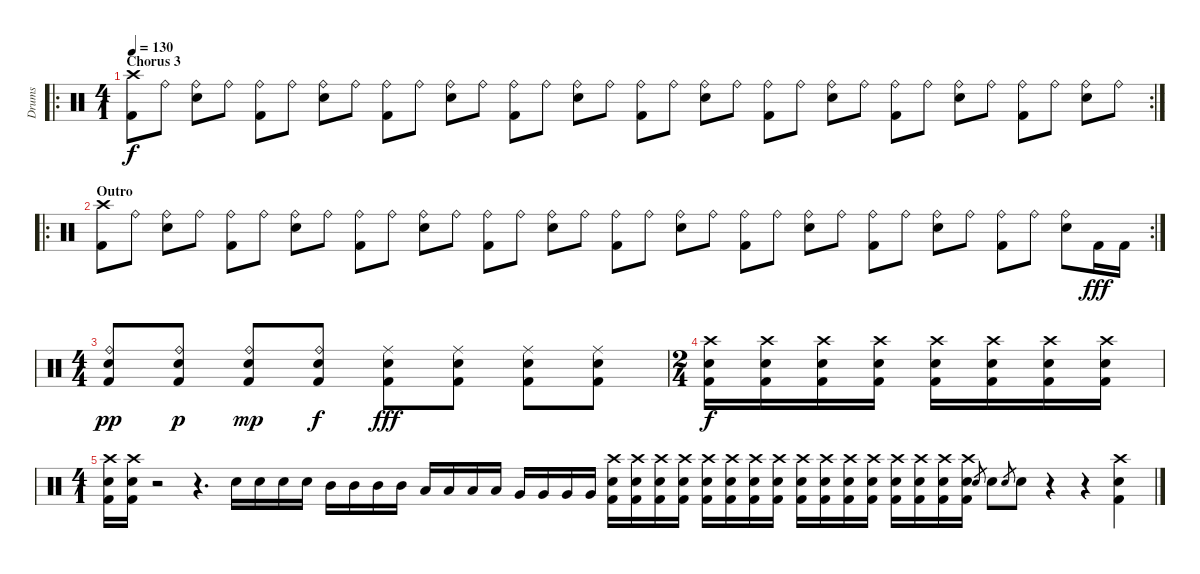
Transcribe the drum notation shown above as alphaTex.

\track ("Drums" "Drums") {instrument percussion}
\staff {score}
\articulation defaults
\ro
\rc 2
\ts (4 1)
\section ("" "Chorus 3")
\tempo 130
\clef neutral
\ks c
("Crash high (hit)" "Kick (hit) 2").8{dy f} "Ride (bell)".8 ("Ride (bell)" "Electric Snare (hit)").8 "Ride (bell)".8 ("Ride (bell)" "Kick (hit) 2").8 "Ride (bell)".8 ("Ride (bell)" "Electric Snare (hit)").8 "Ride (bell)".8 ("Ride (bell)" "Kick (hit) 2").8 "Ride (bell)".8 ("Ride (bell)" "Electric Snare (hit)").8 "Ride (bell)".8 ("Ride (bell)" "Kick (hit) 2").8 "Ride (bell)".8 ("Ride (bell)" "Electric Snare (hit)").8 "Ride (bell)".8 ("Ride (bell)" "Kick (hit) 2").8 "Ride (bell)".8 ("Ride (bell)" "Electric Snare (hit)").8 "Ride (bell)".8 ("Ride (bell)" "Kick (hit) 2").8 "Ride (bell)".8 ("Ride (bell)" "Electric Snare (hit)").8 "Ride (bell)".8 ("Ride (bell)" "Kick (hit) 2").8 "Ride (bell)".8 ("Ride (bell)" "Electric Snare (hit)").8 "Ride (bell)".8 ("Ride (bell)" "Kick (hit) 2").8 "Ride (bell)".8 ("Ride (bell)" "Electric Snare (hit)").8 "Ride (bell)".8 |
\ro
\rc 2
\section ("" "Outro")
("Crash high (hit)" "Kick (hit) 2").8 "Ride (bell)".8 ("Ride (bell)" "Electric Snare (hit)").8 "Ride (bell)".8 ("Ride (bell)" "Kick (hit) 2").8 "Ride (bell)".8 ("Ride (bell)" "Electric Snare (hit)").8 "Ride (bell)".8 ("Ride (bell)" "Kick (hit) 2").8 "Ride (bell)".8 ("Ride (bell)" "Electric Snare (hit)").8 "Ride (bell)".8 ("Ride (bell)" "Kick (hit) 2").8 "Ride (bell)".8 ("Ride (bell)" "Electric Snare (hit)").8 "Ride (bell)".8 ("Ride (bell)" "Kick (hit) 2").8 "Ride (bell)".8 ("Ride (bell)" "Electric Snare (hit)").8 "Ride (bell)".8 ("Ride (bell)" "Kick (hit) 2").8 "Ride (bell)".8 ("Ride (bell)" "Electric Snare (hit)").8 "Ride (bell)".8 ("Ride (bell)" "Kick (hit) 2").8 "Ride (bell)".8 ("Ride (bell)" "Electric Snare (hit)").8 "Ride (bell)".8 ("Ride (bell)" "Kick (hit) 2").8 "Ride (bell)".8 ("Ride (bell)" "Electric Snare (hit)").8 "Kick (hit) 2".16{dy fff} "Kick (hit) 2".16 |
\ts (4 4)
("Ride (bell)" "Electric Snare (hit)" "Kick (hit) 2").8{dy pp} ("Ride (bell)" "Electric Snare (hit)" "Kick (hit) 2").8{dy p} ("Ride (bell)" "Electric Snare (hit)" "Kick (hit) 2").8{dy mp} ("Ride (bell)" "Electric Snare (hit)" "Kick (hit) 2").8{dy f} ("Ride (middle)" "Electric Snare (hit)" "Kick (hit) 2").8{dy fff} ("Ride (middle)" "Electric Snare (hit)" "Kick (hit) 2").8 ("Ride (middle)" "Electric Snare (hit)" "Kick (hit) 2").8 ("Ride (middle)" "Electric Snare (hit)" "Kick (hit) 2").8 |
\ts (2 4)
("Crash high (hit)" "Electric Snare (hit)" "Kick (hit) 2").16{dy f} ("Crash high (hit)" "Electric Snare (hit)" "Kick (hit) 2").16 ("Crash high (hit)" "Electric Snare (hit)" "Kick (hit) 2").16 ("Crash high (hit)" "Electric Snare (hit)" "Kick (hit) 2").16 ("Crash high (hit)" "Electric Snare (hit)" "Kick (hit) 2").16 ("Crash high (hit)" "Electric Snare (hit)" "Kick (hit) 2").16 ("Crash high (hit)" "Electric Snare (hit)" "Kick (hit) 2").16 ("Crash high (hit)" "Electric Snare (hit)" "Kick (hit) 2").16 |
\ts (4 1)
("Crash high (hit)" "Electric Snare (hit)" "Kick (hit) 2").16 ("Crash high (hit)" "Electric Snare (hit)" "Kick (hit) 2").16 r.2 r.4{d} "Electric Snare (hit)".16 "Electric Snare (hit)".16 "Electric Snare (hit)".16 "Electric Snare (hit)".16 "Mid Tom (hit)".16 "Mid Tom (hit)".16 "Mid Tom (hit)".16 "Mid Tom (hit)".16 "Low Tom (hit)".16 "Low Tom (hit)".16 "Low Tom (hit)".16 "Low Tom (hit)".16 "Very Low Tom (hit)".16 "Very Low Tom (hit)".16 "Very Low Tom (hit)".16 "Very Low Tom (hit)".16 ("Crash high (hit)" "Electric Snare (hit)" "Kick (hit) 2").16 ("Crash high (hit)" "Electric Snare (hit)" "Kick (hit) 2").16 ("Crash high (hit)" "Electric Snare (hit)" "Kick (hit) 2").16 ("Crash high (hit)" "Electric Snare (hit)" "Kick (hit) 2").16 ("Crash high (hit)" "Electric Snare (hit)" "Kick (hit) 2").16 ("Crash high (hit)" "Electric Snare (hit)" "Kick (hit) 2").16 ("Crash high (hit)" "Electric Snare (hit)" "Kick (hit) 2").16 ("Crash high (hit)" "Electric Snare (hit)" "Kick (hit) 2").16 ("Crash high (hit)" "Electric Snare (hit)" "Kick (hit) 2").16 ("Crash high (hit)" "Electric Snare (hit)" "Kick (hit) 2").16 ("Crash high (hit)" "Electric Snare (hit)" "Kick (hit) 2").16 ("Crash high (hit)" "Electric Snare (hit)" "Kick (hit) 2").16 ("Crash high (hit)" "Electric Snare (hit)" "Kick (hit) 2").16 ("Crash high (hit)" "Electric Snare (hit)" "Kick (hit) 2").16 ("Crash high (hit)" "Electric Snare (hit)" "Kick (hit) 2").16 ("Crash high (hit)" "Electric Snare (hit)" "Kick (hit) 2").16 "Electric Snare (hit)".8{gr} "Electric Snare (hit)".8 "Electric Snare (hit)".8{gr} "Electric Snare (hit)".8 r.4 r.4 ("Crash high (hit)" "Electric Snare (hit)" "Kick (hit) 2").4
